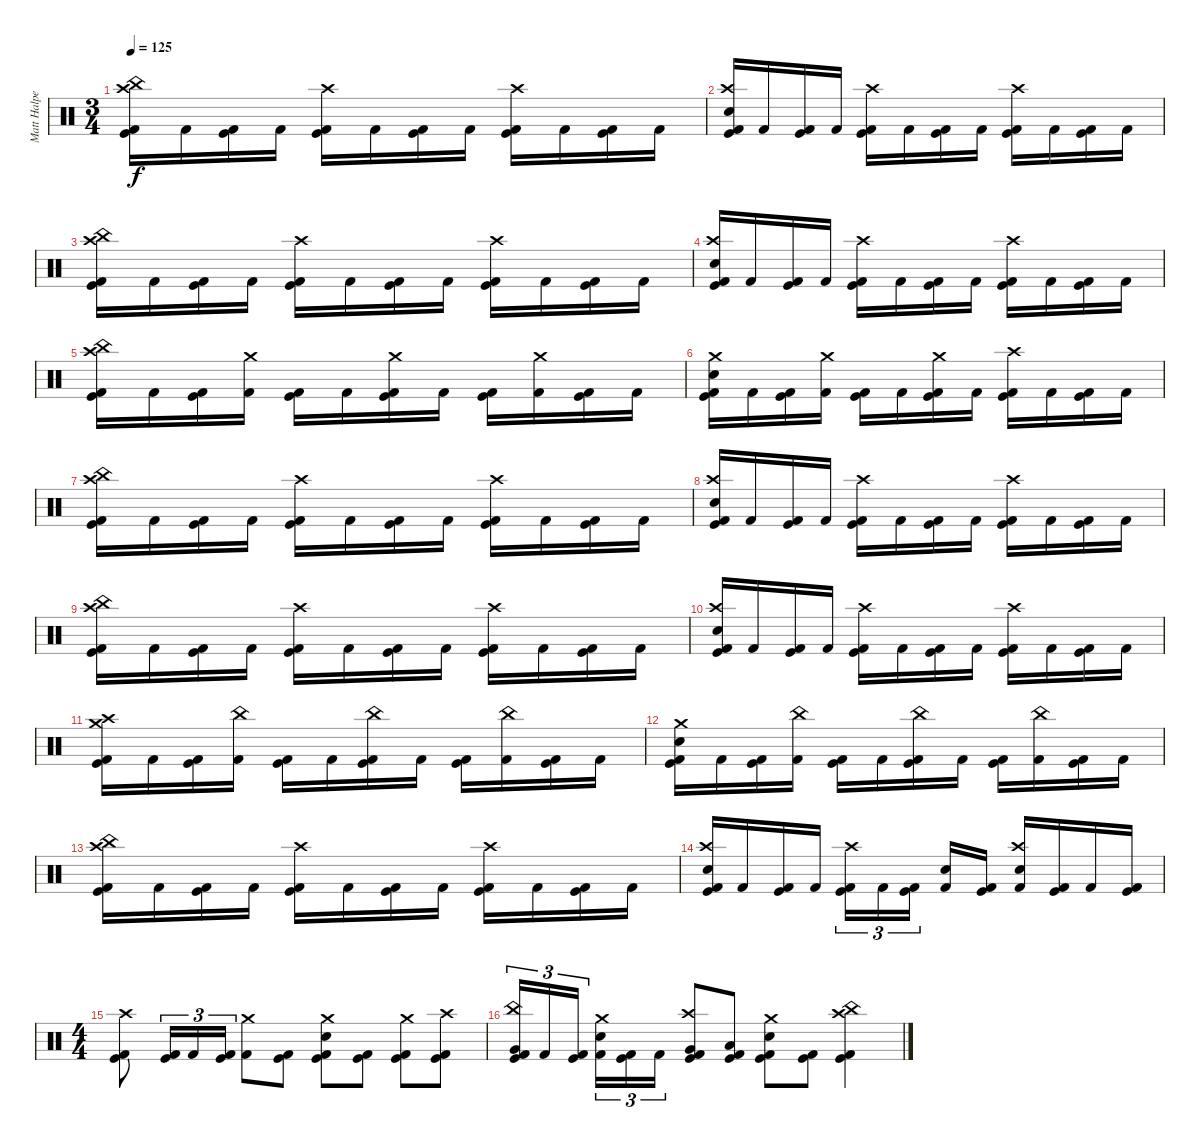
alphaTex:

\track ("Matt Halpern" "Matt Halpe") {instrument percussion}
\staff {score}
\articulation defaults
\ts (3 4)
\tempo 125
\clef neutral
\ks c
("Kick (hit) 2" "Kick (hit)" "China (hit)" "Crash high (hit)").16{dy f} "Kick (hit) 2".16 ("Kick (hit) 2" "Kick (hit)").16 "Kick (hit) 2".16 ("Kick (hit) 2" "Kick (hit)" "Crash high (hit)").16 "Kick (hit) 2".16 ("Kick (hit) 2" "Kick (hit)").16 "Kick (hit) 2".16 ("Kick (hit) 2" "Kick (hit)" "Crash high (hit)").16 "Kick (hit) 2".16 ("Kick (hit) 2" "Kick (hit)").16 "Kick (hit) 2".16 |
("Kick (hit) 2" "Kick (hit)" "Electric Snare (hit)" "Crash high (hit)").16 "Kick (hit) 2".16 ("Kick (hit) 2" "Kick (hit)").16 "Kick (hit) 2".16 ("Kick (hit) 2" "Kick (hit)" "Crash high (hit)").16 "Kick (hit) 2".16 ("Kick (hit) 2" "Kick (hit)").16 "Kick (hit) 2".16 ("Kick (hit) 2" "Kick (hit)" "Crash high (hit)").16 "Kick (hit) 2".16 ("Kick (hit) 2" "Kick (hit)").16 "Kick (hit) 2".16 |
("Kick (hit) 2" "Kick (hit)" "China (hit)" "Crash high (hit)").16 "Kick (hit) 2".16 ("Kick (hit) 2" "Kick (hit)").16 "Kick (hit) 2".16 ("Kick (hit) 2" "Kick (hit)" "Crash high (hit)").16 "Kick (hit) 2".16 ("Kick (hit) 2" "Kick (hit)").16 "Kick (hit) 2".16 ("Kick (hit) 2" "Kick (hit)" "Crash high (hit)").16 "Kick (hit) 2".16 ("Kick (hit) 2" "Kick (hit)").16 "Kick (hit) 2".16 |
("Kick (hit) 2" "Kick (hit)" "Electric Snare (hit)" "Crash high (hit)").16 "Kick (hit) 2".16 ("Kick (hit) 2" "Kick (hit)").16 "Kick (hit) 2".16 ("Kick (hit) 2" "Kick (hit)" "Crash high (hit)").16 "Kick (hit) 2".16 ("Kick (hit) 2" "Kick (hit)").16 "Kick (hit) 2".16 ("Kick (hit) 2" "Kick (hit)" "Crash high (hit)").16 "Kick (hit) 2".16 ("Kick (hit) 2" "Kick (hit)").16 "Kick (hit) 2".16 |
("Kick (hit) 2" "Kick (hit)" "China (hit)" "Crash high (hit)").16 "Kick (hit) 2".16 ("Kick (hit) 2" "Kick (hit)").16 ("Kick (hit) 2" "Crash medium (hit)").16 ("Kick (hit) 2" "Kick (hit)").16 "Kick (hit) 2".16 ("Kick (hit) 2" "Kick (hit)" "Crash medium (hit)").16 "Kick (hit) 2".16 ("Kick (hit) 2" "Kick (hit)").16 ("Kick (hit) 2" "Crash medium (hit)").16 ("Kick (hit) 2" "Kick (hit)").16 "Kick (hit) 2".16 |
("Kick (hit) 2" "Kick (hit)" "Electric Snare (hit)" "Crash medium (hit)").16 "Kick (hit) 2".16 ("Kick (hit) 2" "Kick (hit)").16 ("Kick (hit) 2" "Crash medium (hit)").16 ("Kick (hit) 2" "Kick (hit)").16 "Kick (hit) 2".16 ("Kick (hit) 2" "Kick (hit)" "Crash medium (hit)").16 "Kick (hit) 2".16 ("Kick (hit) 2" "Kick (hit)" "Crash high (hit)").16 "Kick (hit) 2".16 ("Kick (hit) 2" "Kick (hit)").16 "Kick (hit) 2".16 |
("Kick (hit) 2" "Kick (hit)" "China (hit)" "Crash high (hit)").16 "Kick (hit) 2".16 ("Kick (hit) 2" "Kick (hit)").16 "Kick (hit) 2".16 ("Kick (hit) 2" "Kick (hit)" "Crash high (hit)").16 "Kick (hit) 2".16 ("Kick (hit) 2" "Kick (hit)").16 "Kick (hit) 2".16 ("Kick (hit) 2" "Kick (hit)" "Crash high (hit)").16 "Kick (hit) 2".16 ("Kick (hit) 2" "Kick (hit)").16 "Kick (hit) 2".16 |
("Kick (hit) 2" "Kick (hit)" "Electric Snare (hit)" "Crash high (hit)").16 "Kick (hit) 2".16 ("Kick (hit) 2" "Kick (hit)").16 "Kick (hit) 2".16 ("Kick (hit) 2" "Kick (hit)" "Crash high (hit)").16 "Kick (hit) 2".16 ("Kick (hit) 2" "Kick (hit)").16 "Kick (hit) 2".16 ("Kick (hit) 2" "Kick (hit)" "Crash high (hit)").16 "Kick (hit) 2".16 ("Kick (hit) 2" "Kick (hit)").16 "Kick (hit) 2".16 |
("Kick (hit) 2" "Kick (hit)" "China (hit)" "Crash high (hit)").16 "Kick (hit) 2".16 ("Kick (hit) 2" "Kick (hit)").16 "Kick (hit) 2".16 ("Kick (hit) 2" "Kick (hit)" "Crash high (hit)").16 "Kick (hit) 2".16 ("Kick (hit) 2" "Kick (hit)").16 "Kick (hit) 2".16 ("Kick (hit) 2" "Kick (hit)" "Crash high (hit)").16 "Kick (hit) 2".16 ("Kick (hit) 2" "Kick (hit)").16 "Kick (hit) 2".16 |
("Kick (hit) 2" "Kick (hit)" "Electric Snare (hit)" "Crash high (hit)").16 "Kick (hit) 2".16 ("Kick (hit) 2" "Kick (hit)").16 "Kick (hit) 2".16 ("Kick (hit) 2" "Kick (hit)" "Crash high (hit)").16 "Kick (hit) 2".16 ("Kick (hit) 2" "Kick (hit)").16 "Kick (hit) 2".16 ("Kick (hit) 2" "Kick (hit)" "Crash high (hit)").16 "Kick (hit) 2".16 ("Kick (hit) 2" "Kick (hit)").16 "Kick (hit) 2".16 |
("Kick (hit) 2" "Kick (hit)" "Crash high (hit)" "Crash medium (hit)").16 "Kick (hit) 2".16 ("Kick (hit) 2" "Kick (hit)").16 ("Kick (hit) 2" "China (hit)").16 ("Kick (hit) 2" "Kick (hit)").16 "Kick (hit) 2".16 ("Kick (hit) 2" "Kick (hit)" "China (hit)").16 "Kick (hit) 2".16 ("Kick (hit) 2" "Kick (hit)").16 ("Kick (hit) 2" "China (hit)").16 ("Kick (hit) 2" "Kick (hit)").16 "Kick (hit) 2".16 |
("Kick (hit) 2" "Kick (hit)" "Electric Snare (hit)" "Crash medium (hit)").16 "Kick (hit) 2".16 ("Kick (hit) 2" "Kick (hit)").16 ("Kick (hit) 2" "China (hit)").16 ("Kick (hit) 2" "Kick (hit)").16 "Kick (hit) 2".16 ("Kick (hit) 2" "Kick (hit)" "China (hit)").16 "Kick (hit) 2".16 ("Kick (hit) 2" "Kick (hit)").16 ("Kick (hit) 2" "China (hit)").16 ("Kick (hit) 2" "Kick (hit)").16 "Kick (hit) 2".16 |
("Kick (hit) 2" "Kick (hit)" "China (hit)" "Crash high (hit)").16 "Kick (hit) 2".16 ("Kick (hit) 2" "Kick (hit)").16 "Kick (hit) 2".16 ("Kick (hit) 2" "Kick (hit)" "Crash high (hit)").16 "Kick (hit) 2".16 ("Kick (hit) 2" "Kick (hit)").16 "Kick (hit) 2".16 ("Kick (hit) 2" "Kick (hit)" "Crash high (hit)").16 "Kick (hit) 2".16 ("Kick (hit) 2" "Kick (hit)").16 "Kick (hit) 2".16 |
("Kick (hit) 2" "Kick (hit)" "Electric Snare (hit)" "Crash high (hit)").16 "Kick (hit) 2".16 ("Kick (hit) 2" "Kick (hit)").16 "Kick (hit) 2".16 ("Kick (hit) 2" "Kick (hit)" "Crash high (hit)").16{tu (3 2)} "Kick (hit) 2".16{tu (3 2)} ("Kick (hit) 2" "Kick (hit)").16{tu (3 2) beam splitsecondary} ("Kick (hit) 2" "Electric Snare (hit)").16 ("Kick (hit) 2" "Kick (hit)").16 ("Kick (hit) 2" "Electric Snare (hit)" "Crash high (hit)").16 ("Kick (hit) 2" "Kick (hit)").16 "Kick (hit) 2".16 ("Kick (hit) 2" "Kick (hit)").16 |
\ts (4 4)
("Kick (hit) 2" "Kick (hit)" "Crash high (hit)").8 ("Kick (hit) 2" "Kick (hit)").16{tu (3 2)} "Kick (hit) 2".16{tu (3 2)} ("Kick (hit) 2" "Kick (hit)").16{tu (3 2)} ("Kick (hit) 2" "Crash medium (hit)").8 ("Kick (hit) 2" "Kick (hit)").8 ("Kick (hit) 2" "Kick (hit)" "Electric Snare (hit)" "Crash medium (hit)").8 ("Kick (hit) 2" "Kick (hit)").8 ("Kick (hit) 2" "Kick (hit)" "Crash medium (hit)").8 ("Kick (hit) 2" "Kick (hit)" "Crash high (hit)").8 |
("Kick (hit) 2" "Kick (hit)" "Very Low Tom (hit)" "China (hit)").16{tu (3 2)} "Kick (hit) 2".16{tu (3 2)} ("Kick (hit) 2" "Kick (hit)").16{tu (3 2) beam splitsecondary} ("Kick (hit) 2" "Electric Snare (hit)" "Crash medium (hit)").16{tu (3 2)} ("Kick (hit) 2" "Kick (hit)").16{tu (3 2)} "Kick (hit) 2".16{tu (3 2)} ("Kick (hit) 2" "Kick (hit)" "Very Low Tom (hit)" "Crash high (hit)").8 ("Kick (hit) 2" "Kick (hit)" "Low Floor Tom (hit)").8 ("Kick (hit) 2" "Kick (hit)" "Electric Snare (hit)" "Crash medium (hit)").8 ("Kick (hit) 2" "Kick (hit)").8 ("Kick (hit) 2" "Kick (hit)" "China (hit)" "Crash high (hit)").4
